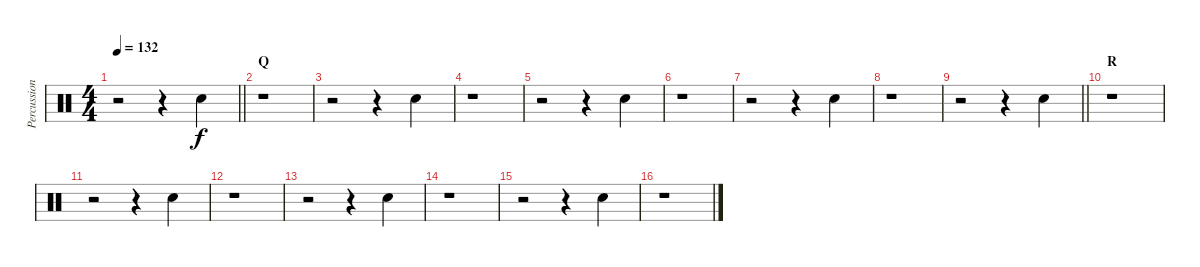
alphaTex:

\track ("Percussions" "Percussion") {instrument percussion}
\staff {score}
\articulation defaults
\ts (4 4)
\tempo 132
\clef neutral
\barLineRight lightlight
\ks c
r.2{dy f} r.4 "Electric Snare (hit)".4 |
\section ("" "Q")
r.1 |
r.2 r.4 "Electric Snare (hit)".4 |
r.1 |
r.2 r.4 "Electric Snare (hit)".4 |
r.1 |
r.2 r.4 "Electric Snare (hit)".4 |
r.1 |
\barLineRight lightlight
r.2 r.4 "Electric Snare (hit)".4 |
\section ("" "R")
r.1 |
r.2 r.4 "Electric Snare (hit)".4 |
r.1 |
r.2 r.4 "Electric Snare (hit)".4 |
r.1 |
r.2 r.4 "Electric Snare (hit)".4 |
r.1
